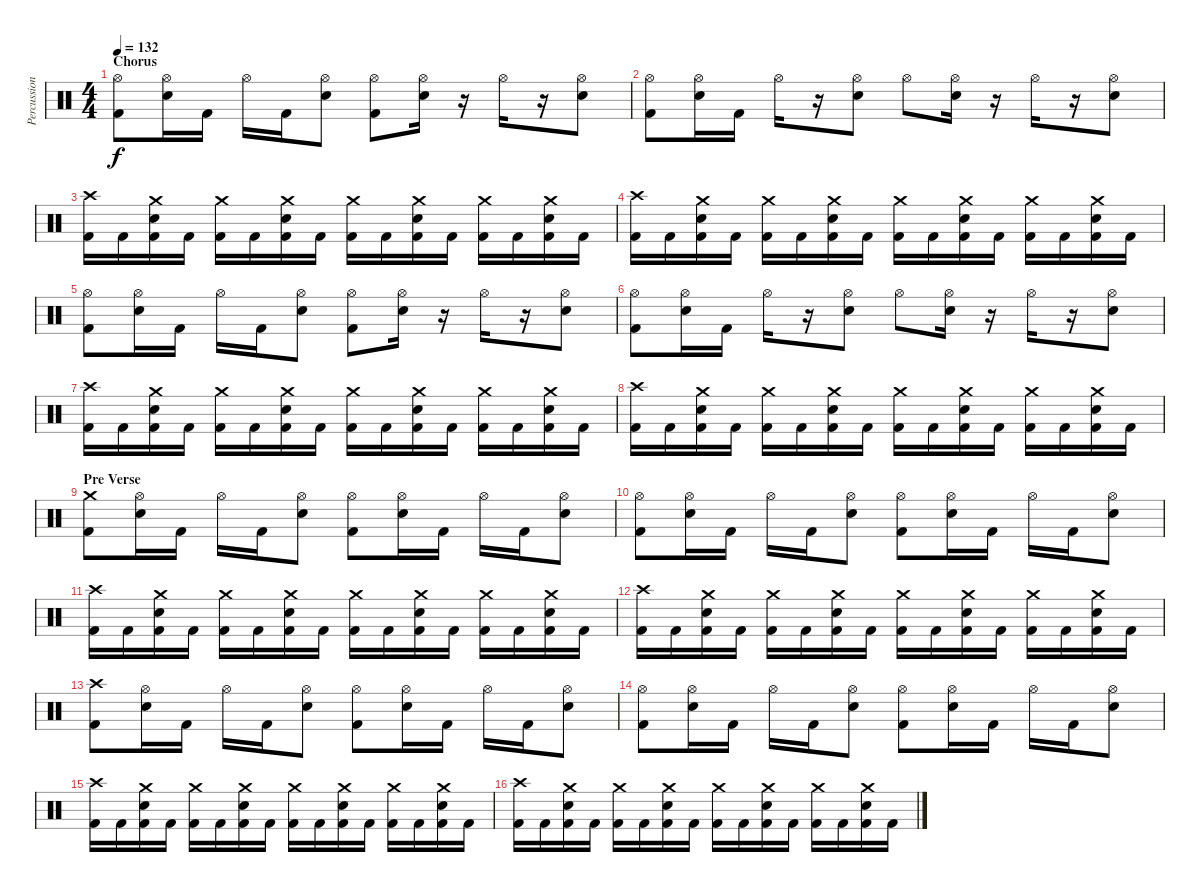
\track ("Percussion" "Percussion") {instrument percussion}
\staff {score}
\articulation defaults
\ts (4 4)
\section ("" "Chorus")
\tempo 132
\clef neutral
\ks c
("Hi-Hat (open)" "Kick (hit) 2").8{dy f} ("Hi-Hat (open)" "Electric Snare (hit)").16 "Kick (hit) 2".16 "Hi-Hat (open)".16 "Kick (hit) 2".16 ("Hi-Hat (open)" "Electric Snare (hit)").8 ("Hi-Hat (open)" "Kick (hit) 2").8 ("Hi-Hat (open)" "Electric Snare (hit)").16 r.16 "Hi-Hat (open)".16 r.16 ("Hi-Hat (open)" "Electric Snare (hit)").8 |
("Hi-Hat (open)" "Kick (hit) 2").8 ("Hi-Hat (open)" "Electric Snare (hit)").16 "Kick (hit) 2".16 "Hi-Hat (open)".16 r.16 ("Hi-Hat (open)" "Electric Snare (hit)").8 "Hi-Hat (open)".8 ("Hi-Hat (open)" "Electric Snare (hit)").16 r.16 "Hi-Hat (open)".16 r.16 ("Hi-Hat (open)" "Electric Snare (hit)").8 |
("Crash high (hit)" "Kick (hit) 2").16 "Kick (hit) 2".16 ("Crash medium (hit)" "Electric Snare (hit)" "Kick (hit) 2").16 "Kick (hit) 2".16 ("Crash medium (hit)" "Kick (hit) 2").16 "Kick (hit) 2".16 ("Crash medium (hit)" "Electric Snare (hit)" "Kick (hit) 2").16 "Kick (hit) 2".16 ("Crash medium (hit)" "Kick (hit) 2").16 "Kick (hit) 2".16 ("Crash medium (hit)" "Electric Snare (hit)" "Kick (hit) 2").16 "Kick (hit) 2".16 ("Crash medium (hit)" "Kick (hit) 2").16 "Kick (hit) 2".16 ("Crash medium (hit)" "Electric Snare (hit)" "Kick (hit) 2").16 "Kick (hit) 2".16 |
("Crash high (hit)" "Kick (hit) 2").16 "Kick (hit) 2".16 ("Crash medium (hit)" "Electric Snare (hit)" "Kick (hit) 2").16 "Kick (hit) 2".16 ("Crash medium (hit)" "Kick (hit) 2").16 "Kick (hit) 2".16 ("Crash medium (hit)" "Electric Snare (hit)" "Kick (hit) 2").16 "Kick (hit) 2".16 ("Crash medium (hit)" "Kick (hit) 2").16 "Kick (hit) 2".16 ("Crash medium (hit)" "Electric Snare (hit)" "Kick (hit) 2").16 "Kick (hit) 2".16 ("Crash medium (hit)" "Kick (hit) 2").16 "Kick (hit) 2".16 ("Crash medium (hit)" "Electric Snare (hit)" "Kick (hit) 2").16 "Kick (hit) 2".16 |
("Hi-Hat (open)" "Kick (hit) 2").8 ("Hi-Hat (open)" "Electric Snare (hit)").16 "Kick (hit) 2".16 "Hi-Hat (open)".16 "Kick (hit) 2".16 ("Hi-Hat (open)" "Electric Snare (hit)").8 ("Hi-Hat (open)" "Kick (hit) 2").8 ("Hi-Hat (open)" "Electric Snare (hit)").16 r.16 "Hi-Hat (open)".16 r.16 ("Hi-Hat (open)" "Electric Snare (hit)").8 |
("Hi-Hat (open)" "Kick (hit) 2").8 ("Hi-Hat (open)" "Electric Snare (hit)").16 "Kick (hit) 2".16 "Hi-Hat (open)".16 r.16 ("Hi-Hat (open)" "Electric Snare (hit)").8 "Hi-Hat (open)".8 ("Hi-Hat (open)" "Electric Snare (hit)").16 r.16 "Hi-Hat (open)".16 r.16 ("Hi-Hat (open)" "Electric Snare (hit)").8 |
("Crash high (hit)" "Kick (hit) 2").16 "Kick (hit) 2".16 ("Crash medium (hit)" "Electric Snare (hit)" "Kick (hit) 2").16 "Kick (hit) 2".16 ("Crash medium (hit)" "Kick (hit) 2").16 "Kick (hit) 2".16 ("Crash medium (hit)" "Electric Snare (hit)" "Kick (hit) 2").16 "Kick (hit) 2".16 ("Crash medium (hit)" "Kick (hit) 2").16 "Kick (hit) 2".16 ("Crash medium (hit)" "Electric Snare (hit)" "Kick (hit) 2").16 "Kick (hit) 2".16 ("Crash medium (hit)" "Kick (hit) 2").16 "Kick (hit) 2".16 ("Crash medium (hit)" "Electric Snare (hit)" "Kick (hit) 2").16 "Kick (hit) 2".16 |
("Crash high (hit)" "Kick (hit) 2").16 "Kick (hit) 2".16 ("Crash medium (hit)" "Electric Snare (hit)" "Kick (hit) 2").16 "Kick (hit) 2".16 ("Crash medium (hit)" "Kick (hit) 2").16 "Kick (hit) 2".16 ("Crash medium (hit)" "Electric Snare (hit)" "Kick (hit) 2").16 "Kick (hit) 2".16 ("Crash medium (hit)" "Kick (hit) 2").16 "Kick (hit) 2".16 ("Crash medium (hit)" "Electric Snare (hit)" "Kick (hit) 2").16 "Kick (hit) 2".16 ("Crash medium (hit)" "Kick (hit) 2").16 "Kick (hit) 2".16 ("Crash medium (hit)" "Electric Snare (hit)" "Kick (hit) 2").16 "Kick (hit) 2".16 |
\section ("" "Pre Verse")
("Crash medium (hit)" "Kick (hit) 2").8 ("Hi-Hat (open)" "Electric Snare (hit)").16 "Kick (hit) 2".16 "Hi-Hat (open)".16 "Kick (hit) 2".16 ("Hi-Hat (open)" "Electric Snare (hit)").8 ("Hi-Hat (open)" "Kick (hit) 2").8 ("Hi-Hat (open)" "Electric Snare (hit)").16 "Kick (hit) 2".16 "Hi-Hat (open)".16 "Kick (hit) 2".16 ("Hi-Hat (open)" "Electric Snare (hit)").8 |
("Hi-Hat (open)" "Kick (hit) 2").8 ("Hi-Hat (open)" "Electric Snare (hit)").16 "Kick (hit) 2".16 "Hi-Hat (open)".16 "Kick (hit) 2".16 ("Hi-Hat (open)" "Electric Snare (hit)").8 ("Hi-Hat (open)" "Kick (hit) 2").8 ("Hi-Hat (open)" "Electric Snare (hit)").16 "Kick (hit) 2".16 "Hi-Hat (open)".16 "Kick (hit) 2".16 ("Hi-Hat (open)" "Electric Snare (hit)").8 |
("Crash high (hit)" "Kick (hit) 2").16 "Kick (hit) 2".16 ("Crash medium (hit)" "Electric Snare (hit)" "Kick (hit) 2").16 "Kick (hit) 2".16 ("Crash medium (hit)" "Kick (hit) 2").16 "Kick (hit) 2".16 ("Crash medium (hit)" "Electric Snare (hit)" "Kick (hit) 2").16 "Kick (hit) 2".16 ("Crash medium (hit)" "Kick (hit) 2").16 "Kick (hit) 2".16 ("Crash medium (hit)" "Electric Snare (hit)" "Kick (hit) 2").16 "Kick (hit) 2".16 ("Crash medium (hit)" "Kick (hit) 2").16 "Kick (hit) 2".16 ("Crash medium (hit)" "Electric Snare (hit)" "Kick (hit) 2").16 "Kick (hit) 2".16 |
("Crash high (hit)" "Kick (hit) 2").16 "Kick (hit) 2".16 ("Crash medium (hit)" "Electric Snare (hit)" "Kick (hit) 2").16 "Kick (hit) 2".16 ("Crash medium (hit)" "Kick (hit) 2").16 "Kick (hit) 2".16 ("Crash medium (hit)" "Electric Snare (hit)" "Kick (hit) 2").16 "Kick (hit) 2".16 ("Crash medium (hit)" "Kick (hit) 2").16 "Kick (hit) 2".16 ("Crash medium (hit)" "Electric Snare (hit)" "Kick (hit) 2").16 "Kick (hit) 2".16 ("Crash medium (hit)" "Kick (hit) 2").16 "Kick (hit) 2".16 ("Crash medium (hit)" "Electric Snare (hit)" "Kick (hit) 2").16 "Kick (hit) 2".16 |
("Crash high (hit)" "Kick (hit) 2").8 ("Hi-Hat (open)" "Electric Snare (hit)").16 "Kick (hit) 2".16 "Hi-Hat (open)".16 "Kick (hit) 2".16 ("Hi-Hat (open)" "Electric Snare (hit)").8 ("Hi-Hat (open)" "Kick (hit) 2").8 ("Hi-Hat (open)" "Electric Snare (hit)").16 "Kick (hit) 2".16 "Hi-Hat (open)".16 "Kick (hit) 2".16 ("Hi-Hat (open)" "Electric Snare (hit)").8 |
("Hi-Hat (open)" "Kick (hit) 2").8 ("Hi-Hat (open)" "Electric Snare (hit)").16 "Kick (hit) 2".16 "Hi-Hat (open)".16 "Kick (hit) 2".16 ("Hi-Hat (open)" "Electric Snare (hit)").8 ("Hi-Hat (open)" "Kick (hit) 2").8 ("Hi-Hat (open)" "Electric Snare (hit)").16 "Kick (hit) 2".16 "Hi-Hat (open)".16 "Kick (hit) 2".16 ("Hi-Hat (open)" "Electric Snare (hit)").8 |
("Crash high (hit)" "Kick (hit) 2").16 "Kick (hit) 2".16 ("Crash medium (hit)" "Electric Snare (hit)" "Kick (hit) 2").16 "Kick (hit) 2".16 ("Crash medium (hit)" "Kick (hit) 2").16 "Kick (hit) 2".16 ("Crash medium (hit)" "Electric Snare (hit)" "Kick (hit) 2").16 "Kick (hit) 2".16 ("Crash medium (hit)" "Kick (hit) 2").16 "Kick (hit) 2".16 ("Crash medium (hit)" "Electric Snare (hit)" "Kick (hit) 2").16 "Kick (hit) 2".16 ("Crash medium (hit)" "Kick (hit) 2").16 "Kick (hit) 2".16 ("Crash medium (hit)" "Electric Snare (hit)" "Kick (hit) 2").16 "Kick (hit) 2".16 |
("Crash high (hit)" "Kick (hit) 2").16 "Kick (hit) 2".16 ("Crash medium (hit)" "Electric Snare (hit)" "Kick (hit) 2").16 "Kick (hit) 2".16 ("Crash medium (hit)" "Kick (hit) 2").16 "Kick (hit) 2".16 ("Crash medium (hit)" "Electric Snare (hit)" "Kick (hit) 2").16 "Kick (hit) 2".16 ("Crash medium (hit)" "Kick (hit) 2").16 "Kick (hit) 2".16 ("Crash medium (hit)" "Electric Snare (hit)" "Kick (hit) 2").16 "Kick (hit) 2".16 ("Crash medium (hit)" "Kick (hit) 2").16 "Kick (hit) 2".16 ("Crash medium (hit)" "Electric Snare (hit)" "Kick (hit) 2").16 "Kick (hit) 2".16
